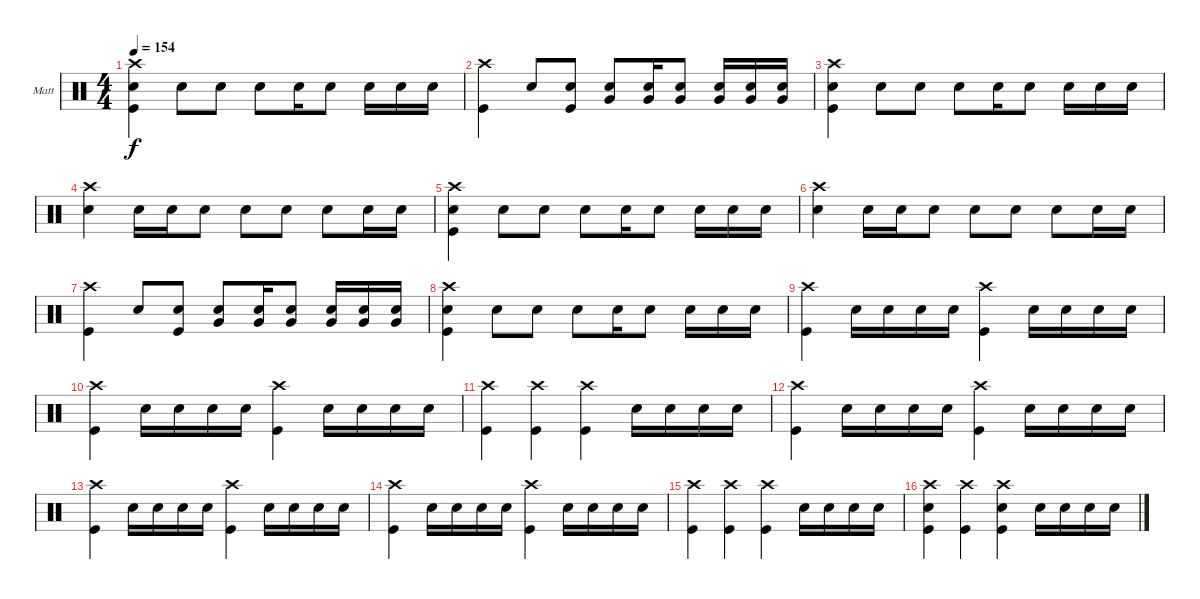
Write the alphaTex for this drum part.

\defaultSystemsLayout 4
\bracketExtendMode groupsimilarinstruments
\firstSystemTrackNameOrientation horizontal
\otherSystemsTrackNameOrientation horizontal
\track ("Matt Helders" "Matt") {instrument percussion}
\staff {score}
\articulation defaults
\ts (4 4)
\tempo 154
\clef neutral
\ks c
("Snare (hit) 2" "Kick (hit)" "Crash high (hit)").4{dy f} "Snare (hit) 2".8 "Snare (hit) 2".8 "Snare (hit) 2".8 "Snare (hit) 2".16 "Snare (hit) 2".8 "Snare (hit) 2".16 "Snare (hit) 2".16 "Snare (hit) 2".16 |
("Kick (hit)" "Crash high (hit)").4 "Snare (hit) 2".8 ("Snare (hit) 2" "Kick (hit)").8 ("Snare (hit) 2" "Very Low Tom (hit)").8 ("Snare (hit) 2" "Very Low Tom (hit)").16 ("Snare (hit) 2" "Very Low Tom (hit)").8 ("Snare (hit) 2" "Very Low Tom (hit)").16 ("Snare (hit) 2" "Very Low Tom (hit)").16 ("Snare (hit) 2" "Very Low Tom (hit)").16 |
("Snare (hit) 2" "Kick (hit)" "Crash high (hit)").4 "Snare (hit) 2".8 "Snare (hit) 2".8 "Snare (hit) 2".8 "Snare (hit) 2".16 "Snare (hit) 2".8 "Snare (hit) 2".16 "Snare (hit) 2".16 "Snare (hit) 2".16 |
("Snare (hit) 2" "Crash high (hit)").4 "Snare (hit) 2".16 "Snare (hit) 2".16 "Snare (hit) 2".8 "Snare (hit) 2".8 "Snare (hit) 2".8 "Snare (hit) 2".8 "Snare (hit) 2".16 "Snare (hit) 2".16 |
("Snare (hit) 2" "Kick (hit)" "Crash high (hit)").4 "Snare (hit) 2".8 "Snare (hit) 2".8 "Snare (hit) 2".8 "Snare (hit) 2".16 "Snare (hit) 2".8 "Snare (hit) 2".16 "Snare (hit) 2".16 "Snare (hit) 2".16 |
("Snare (hit) 2" "Crash high (hit)").4 "Snare (hit) 2".16 "Snare (hit) 2".16 "Snare (hit) 2".8 "Snare (hit) 2".8 "Snare (hit) 2".8 "Snare (hit) 2".8 "Snare (hit) 2".16 "Snare (hit) 2".16 |
("Kick (hit)" "Crash high (hit)").4 "Snare (hit) 2".8 ("Snare (hit) 2" "Kick (hit)").8 ("Snare (hit) 2" "Very Low Tom (hit)").8 ("Snare (hit) 2" "Very Low Tom (hit)").16 ("Snare (hit) 2" "Very Low Tom (hit)").8 ("Snare (hit) 2" "Very Low Tom (hit)").16 ("Snare (hit) 2" "Very Low Tom (hit)").16 ("Snare (hit) 2" "Very Low Tom (hit)").16 |
("Snare (hit) 2" "Kick (hit)" "Crash high (hit)").4 "Snare (hit) 2".8 "Snare (hit) 2".8 "Snare (hit) 2".8 "Snare (hit) 2".16 "Snare (hit) 2".8 "Snare (hit) 2".16 "Snare (hit) 2".16 "Snare (hit) 2".16 |
("Kick (hit)" "Crash high (hit)").4 "Snare (hit) 2".16 "Snare (hit) 2".16 "Snare (hit) 2".16 "Snare (hit) 2".16 ("Kick (hit)" "Crash high (hit)").4 "Snare (hit) 2".16 "Snare (hit) 2".16 "Snare (hit) 2".16 "Snare (hit) 2".16 |
("Kick (hit)" "Crash high (hit)").4 "Snare (hit) 2".16 "Snare (hit) 2".16 "Snare (hit) 2".16 "Snare (hit) 2".16 ("Kick (hit)" "Crash high (hit)").4 "Snare (hit) 2".16 "Snare (hit) 2".16 "Snare (hit) 2".16 "Snare (hit) 2".16 |
("Kick (hit)" "Crash high (hit)").4 ("Kick (hit)" "Crash high (hit)").4 ("Kick (hit)" "Crash high (hit)").4 "Snare (hit) 2".16 "Snare (hit) 2".16 "Snare (hit) 2".16 "Snare (hit) 2".16 |
("Kick (hit)" "Crash high (hit)").4 "Snare (hit) 2".16 "Snare (hit) 2".16 "Snare (hit) 2".16 "Snare (hit) 2".16 ("Kick (hit)" "Crash high (hit)").4 "Snare (hit) 2".16 "Snare (hit) 2".16 "Snare (hit) 2".16 "Snare (hit) 2".16 |
("Kick (hit)" "Crash high (hit)").4 "Snare (hit) 2".16 "Snare (hit) 2".16 "Snare (hit) 2".16 "Snare (hit) 2".16 ("Kick (hit)" "Crash high (hit)").4 "Snare (hit) 2".16 "Snare (hit) 2".16 "Snare (hit) 2".16 "Snare (hit) 2".16 |
("Kick (hit)" "Crash high (hit)").4 "Snare (hit) 2".16 "Snare (hit) 2".16 "Snare (hit) 2".16 "Snare (hit) 2".16 ("Kick (hit)" "Crash high (hit)").4 "Snare (hit) 2".16 "Snare (hit) 2".16 "Snare (hit) 2".16 "Snare (hit) 2".16 |
("Kick (hit)" "Crash high (hit)").4 ("Kick (hit)" "Crash high (hit)").4 ("Kick (hit)" "Crash high (hit)").4 "Snare (hit) 2".16 "Snare (hit) 2".16 "Snare (hit) 2".16 "Snare (hit) 2".16 |
("Kick (hit)" "Crash high (hit)" "Snare (hit) 2").4 ("Kick (hit)" "Crash high (hit)").4 ("Kick (hit)" "Crash high (hit)" "Snare (hit) 2").4 "Snare (hit) 2".16 "Snare (hit) 2".16 "Snare (hit) 2".16 "Snare (hit) 2".16
